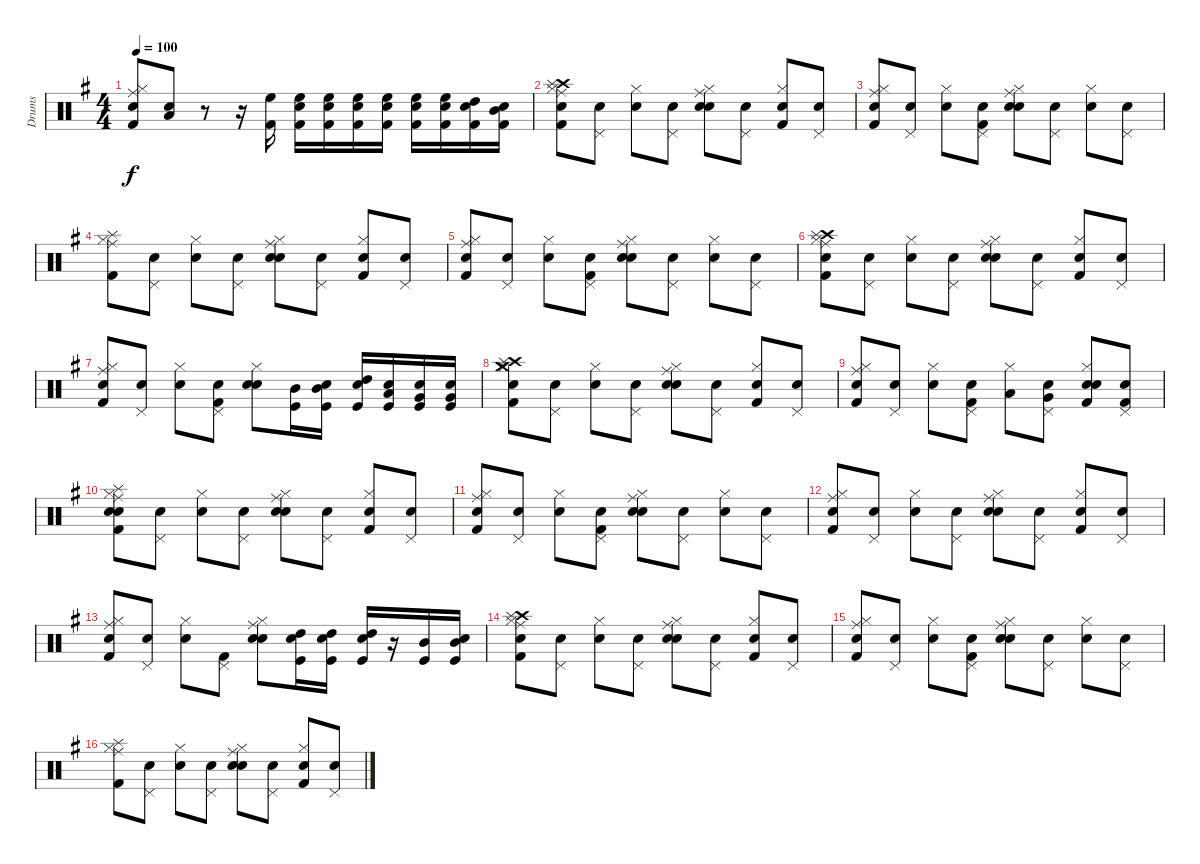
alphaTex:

\track ("Drums" "Drums") {instrument percussion}
\staff {score}
\articulation defaults
\ts (4 4)
\tempo 100
\clef neutral
\ks g
("Snare (hit)" "Ride (middle)" "Hi-Hat (closed)" "Kick (hit) 2").8{dy f} ("Snare (hit)" "Low Tom (hit)").8 r.8 r.16 ("Kick (hit) 2" "High Floor Tom (hit)").16 ("Snare (hit)" "Kick (hit) 2" "High Floor Tom (hit)").16 ("Snare (hit)" "Kick (hit) 2" "High Floor Tom (hit)").16 ("Snare (hit)" "Kick (hit) 2" "High Floor Tom (hit)").16 ("Snare (hit)" "Kick (hit) 2" "High Floor Tom (hit)").16 ("Snare (hit)" "Kick (hit) 2" "High Floor Tom (hit)").16 ("Snare (hit)" "Kick (hit) 2" "High Floor Tom (hit)").16 ("Snare (hit)" "Kick (hit) 2" "High Tom (hit)").16 ("Snare (hit)" "Kick (hit) 2" "Mid Tom (hit)").16 |
("Snare (hit)" "Hi-Hat (closed)" "Ride (middle)" "Kick (hit) 2" "Crash high (hit)" "Splash (hit)").8 ("Snare (hit)" "Pedal Hi-Hat (hit)").8 ("Snare (hit)" "Hi-Hat (closed)").8 ("Snare (hit)" "Pedal Hi-Hat (hit)").8 ("Snare (hit)" "Ride (middle)" "Hi-Hat (closed)" "Snare (hit) 2").8 ("Snare (hit)" "Pedal Hi-Hat (hit)").8 ("Snare (hit)" "Hi-Hat (closed)" "Kick (hit) 2").8 ("Snare (hit)" "Pedal Hi-Hat (hit)").8 |
("Snare (hit)" "Ride (middle)" "Hi-Hat (closed)" "Kick (hit) 2").8 ("Snare (hit)" "Pedal Hi-Hat (hit)").8 ("Snare (hit)" "Hi-Hat (closed)").8 ("Snare (hit)" "Pedal Hi-Hat (hit)" "Kick (hit) 2").8 ("Snare (hit)" "Ride (middle)" "Hi-Hat (closed)" "Snare (hit) 2").8 ("Snare (hit)" "Pedal Hi-Hat (hit)").8 ("Snare (hit)" "Hi-Hat (closed)").8 ("Snare (hit)" "Pedal Hi-Hat (hit)").8 |
("Splash (hit)" "Kick (hit) 2" "Ride (middle)" "Hi-Hat (closed)").8 ("Snare (hit)" "Pedal Hi-Hat (hit)").8 ("Snare (hit)" "Hi-Hat (closed)").8 ("Snare (hit)" "Pedal Hi-Hat (hit)").8 ("Snare (hit)" "Ride (middle)" "Hi-Hat (closed)" "Snare (hit) 2").8 ("Snare (hit)" "Pedal Hi-Hat (hit)").8 ("Snare (hit)" "Hi-Hat (closed)" "Kick (hit) 2").8 ("Snare (hit)" "Pedal Hi-Hat (hit)").8 |
("Snare (hit)" "Ride (middle)" "Hi-Hat (closed)" "Kick (hit) 2").8 ("Snare (hit)" "Pedal Hi-Hat (hit)").8 ("Snare (hit)" "Hi-Hat (closed)").8 ("Snare (hit)" "Pedal Hi-Hat (hit)" "Kick (hit) 2").8 ("Snare (hit)" "Ride (middle)" "Hi-Hat (closed)" "Snare (hit) 2").8 ("Snare (hit)" "Pedal Hi-Hat (hit)").8 ("Snare (hit)" "Hi-Hat (closed)").8 ("Snare (hit)" "Pedal Hi-Hat (hit)").8 |
("Snare (hit)" "Hi-Hat (closed)" "Ride (middle)" "Kick (hit) 2" "Crash high (hit)" "Splash (hit)").8 ("Snare (hit)" "Pedal Hi-Hat (hit)").8 ("Snare (hit)" "Hi-Hat (closed)").8 ("Snare (hit)" "Pedal Hi-Hat (hit)").8 ("Snare (hit)" "Ride (middle)" "Hi-Hat (closed)" "Snare (hit) 2").8 ("Snare (hit)" "Pedal Hi-Hat (hit)").8 ("Snare (hit)" "Hi-Hat (closed)" "Kick (hit) 2").8 ("Snare (hit)" "Pedal Hi-Hat (hit)").8 |
("Snare (hit)" "Ride (middle)" "Hi-Hat (closed)" "Kick (hit) 2").8 ("Snare (hit)" "Pedal Hi-Hat (hit)").8 ("Snare (hit)" "Hi-Hat (closed)").8 ("Snare (hit)" "Pedal Hi-Hat (hit)" "Kick (hit) 2").8 ("Snare (hit)" "Hi-Hat (closed)" "Snare (hit) 2").8 ("Kick (hit)" "Mid Tom (hit)").16 ("Snare (hit)" "Kick (hit)" "Mid Tom (hit)").16 ("Snare (hit)" "Kick (hit)" "High Tom (hit)").16 ("Snare (hit)" "Kick (hit)" "Low Tom (hit)").16 ("Snare (hit)" "Very Low Tom (hit)" "Kick (hit)").16 ("Snare (hit)" "Very Low Tom (hit)" "Kick (hit)").16 |
("Snare (hit)" "Crash medium (hit)" "Crash high (hit)" "Splash (hit)" "Kick (hit) 2" "Hi-Hat (closed)").8 ("Snare (hit)" "Pedal Hi-Hat (hit)").8 ("Snare (hit)" "Hi-Hat (closed)").8 ("Snare (hit)" "Pedal Hi-Hat (hit)").8 ("Snare (hit)" "Ride (middle)" "Hi-Hat (closed)" "Snare (hit) 2").8 ("Snare (hit)" "Pedal Hi-Hat (hit)").8 ("Snare (hit)" "Hi-Hat (closed)" "Kick (hit) 2").8 ("Snare (hit)" "Pedal Hi-Hat (hit)").8 |
("Snare (hit)" "Ride (middle)" "Hi-Hat (closed)" "Kick (hit) 2").8 ("Snare (hit)" "Pedal Hi-Hat (hit)").8 ("Snare (hit)" "Hi-Hat (closed)").8 ("Snare (hit)" "Pedal Hi-Hat (hit)" "Kick (hit) 2").8 ("Hi-Hat (closed)" "Low Tom (hit)").8 ("Snare (hit)" "Pedal Hi-Hat (hit)" "Very Low Tom (hit)").8 ("Snare (hit)" "Hi-Hat (closed)" "Snare (hit) 2" "Kick (hit) 2").8 ("Pedal Hi-Hat (hit)" "Snare (hit) 2" "Kick (hit) 2").8 |
("Snare (hit)" "Ride (middle)" "Hi-Hat (closed)" "Kick (hit) 2" "Snare (hit) 2" "Splash (hit)").8 ("Snare (hit)" "Pedal Hi-Hat (hit)").8 ("Snare (hit)" "Hi-Hat (closed)").8 ("Snare (hit)" "Pedal Hi-Hat (hit)").8 ("Snare (hit)" "Ride (middle)" "Hi-Hat (closed)" "Snare (hit) 2").8 ("Snare (hit)" "Pedal Hi-Hat (hit)").8 ("Snare (hit)" "Hi-Hat (closed)" "Kick (hit) 2").8 ("Snare (hit)" "Pedal Hi-Hat (hit)").8 |
("Snare (hit)" "Ride (middle)" "Hi-Hat (closed)" "Kick (hit) 2").8 ("Snare (hit)" "Pedal Hi-Hat (hit)").8 ("Snare (hit)" "Hi-Hat (closed)").8 ("Snare (hit)" "Pedal Hi-Hat (hit)" "Kick (hit) 2").8 ("Snare (hit)" "Ride (middle)" "Hi-Hat (closed)" "Snare (hit) 2").8 ("Snare (hit)" "Pedal Hi-Hat (hit)").8 ("Snare (hit)" "Hi-Hat (closed)").8 ("Snare (hit)" "Pedal Hi-Hat (hit)").8 |
("Snare (hit)" "Kick (hit) 2" "Ride (middle)" "Hi-Hat (closed)").8 ("Snare (hit)" "Pedal Hi-Hat (hit)").8 ("Snare (hit)" "Hi-Hat (closed)").8 ("Snare (hit)" "Pedal Hi-Hat (hit)").8 ("Snare (hit)" "Ride (middle)" "Hi-Hat (closed)" "Snare (hit) 2").8 ("Snare (hit)" "Pedal Hi-Hat (hit)").8 ("Snare (hit)" "Hi-Hat (closed)" "Kick (hit) 2").8 ("Snare (hit)" "Pedal Hi-Hat (hit)").8 |
("Snare (hit)" "Ride (middle)" "Hi-Hat (closed)" "Kick (hit) 2").8 ("Snare (hit)" "Pedal Hi-Hat (hit)").8 ("Snare (hit)" "Hi-Hat (closed)").8 ("Kick (hit) 2" "Pedal Hi-Hat (hit)").8 ("Snare (hit)" "Snare (hit) 2" "Ride (middle)" "Hi-Hat (closed)").8 ("Snare (hit)" "Kick (hit)" "High Tom (hit)").16 ("Snare (hit)" "Kick (hit)" "High Tom (hit)").16 ("Snare (hit)" "Kick (hit)" "High Tom (hit)").16 r.16 ("Kick (hit)" "Mid Tom (hit)").16 ("Snare (hit)" "Kick (hit)" "Mid Tom (hit)").16 |
("Snare (hit)" "Hi-Hat (closed)" "Ride (middle)" "Kick (hit) 2" "Crash high (hit)" "Splash (hit)").8 ("Snare (hit)" "Pedal Hi-Hat (hit)").8 ("Snare (hit)" "Hi-Hat (closed)").8 ("Snare (hit)" "Pedal Hi-Hat (hit)").8 ("Snare (hit)" "Ride (middle)" "Hi-Hat (closed)" "Snare (hit) 2").8 ("Snare (hit)" "Pedal Hi-Hat (hit)").8 ("Snare (hit)" "Hi-Hat (closed)" "Kick (hit) 2").8 ("Snare (hit)" "Pedal Hi-Hat (hit)").8 |
("Snare (hit)" "Ride (middle)" "Hi-Hat (closed)" "Kick (hit) 2").8 ("Snare (hit)" "Pedal Hi-Hat (hit)").8 ("Snare (hit)" "Hi-Hat (closed)").8 ("Snare (hit)" "Pedal Hi-Hat (hit)" "Kick (hit) 2").8 ("Snare (hit)" "Ride (middle)" "Hi-Hat (closed)" "Snare (hit) 2").8 ("Snare (hit)" "Pedal Hi-Hat (hit)").8 ("Snare (hit)" "Hi-Hat (closed)").8 ("Snare (hit)" "Pedal Hi-Hat (hit)").8 |
("Splash (hit)" "Kick (hit) 2" "Ride (middle)" "Hi-Hat (closed)").8 ("Snare (hit)" "Pedal Hi-Hat (hit)").8 ("Snare (hit)" "Hi-Hat (closed)").8 ("Snare (hit)" "Pedal Hi-Hat (hit)").8 ("Snare (hit)" "Ride (middle)" "Hi-Hat (closed)" "Snare (hit) 2").8 ("Snare (hit)" "Pedal Hi-Hat (hit)").8 ("Snare (hit)" "Hi-Hat (closed)" "Kick (hit) 2").8 ("Snare (hit)" "Pedal Hi-Hat (hit)").8
